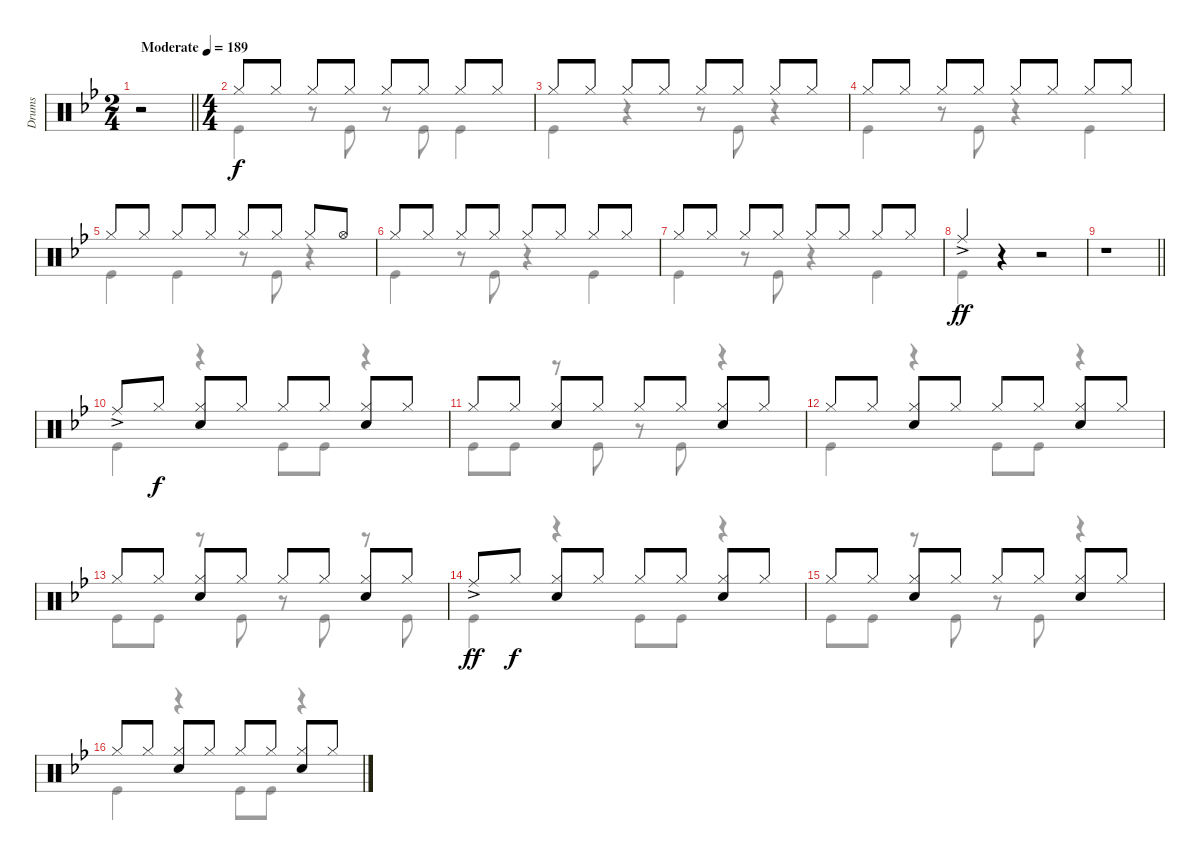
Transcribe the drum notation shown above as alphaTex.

\track ("Drums" "Drums") {instrument percussion}
\staff {score}
\articulation defaults
\voice
\ts (2 4)
\tempo (189 "Moderate")
\clef neutral
\barLineRight lightlight
\ks bb
r.2{dy f} |
\ts (4 4)
"Hi-Hat (closed)".8 "Hi-Hat (closed)".8 "Hi-Hat (closed)".8 "Hi-Hat (closed)".8 "Hi-Hat (closed)".8 "Hi-Hat (closed)".8 "Hi-Hat (closed)".8 "Hi-Hat (closed)".8 |
"Hi-Hat (closed)".8 "Hi-Hat (closed)".8 "Hi-Hat (closed)".8 "Hi-Hat (closed)".8 "Hi-Hat (closed)".8 "Hi-Hat (closed)".8 "Hi-Hat (closed)".8 "Hi-Hat (closed)".8 |
"Hi-Hat (closed)".8 "Hi-Hat (closed)".8 "Hi-Hat (closed)".8 "Hi-Hat (closed)".8 "Hi-Hat (closed)".8 "Hi-Hat (closed)".8 "Hi-Hat (closed)".8 "Hi-Hat (closed)".8 |
"Hi-Hat (closed)".8 "Hi-Hat (closed)".8 "Hi-Hat (closed)".8 "Hi-Hat (closed)".8 "Hi-Hat (closed)".8 "Hi-Hat (closed)".8 "Hi-Hat (closed)".8 "Hi-Hat (open)".8 |
"Hi-Hat (closed)".8 "Hi-Hat (closed)".8 "Hi-Hat (closed)".8 "Hi-Hat (closed)".8 "Hi-Hat (closed)".8 "Hi-Hat (closed)".8 "Hi-Hat (closed)".8 "Hi-Hat (closed)".8 |
"Hi-Hat (closed)".8 "Hi-Hat (closed)".8 "Hi-Hat (closed)".8 "Hi-Hat (closed)".8 "Hi-Hat (closed)".8 "Hi-Hat (closed)".8 "Hi-Hat (closed)".8 "Hi-Hat (closed)".8 |
"Ride (middle)"{ac}.4{dy ff} r.4 r.2 |
\barLineRight lightlight
r.1 |
"Ride (middle)"{ac}.8 "Hi-Hat (closed)".8{dy f} ("Hi-Hat (closed)" "Snare (hit) 2").8 "Hi-Hat (closed)".8 "Hi-Hat (closed)".8 "Hi-Hat (closed)".8 ("Hi-Hat (closed)" "Snare (hit) 2").8 "Hi-Hat (closed)".8 |
"Hi-Hat (closed)".8 "Hi-Hat (closed)".8 ("Hi-Hat (closed)" "Snare (hit) 2").8 "Hi-Hat (closed)".8 "Hi-Hat (closed)".8 "Hi-Hat (closed)".8 ("Hi-Hat (closed)" "Snare (hit) 2").8 "Hi-Hat (closed)".8 |
"Hi-Hat (closed)".8 "Hi-Hat (closed)".8 ("Hi-Hat (closed)" "Snare (hit) 2").8 "Hi-Hat (closed)".8 "Hi-Hat (closed)".8 "Hi-Hat (closed)".8 ("Hi-Hat (closed)" "Snare (hit) 2").8 "Hi-Hat (closed)".8 |
"Hi-Hat (closed)".8 "Hi-Hat (closed)".8 ("Hi-Hat (closed)" "Snare (hit) 2").8 "Hi-Hat (closed)".8 "Hi-Hat (closed)".8 "Hi-Hat (closed)".8 ("Hi-Hat (closed)" "Snare (hit) 2").8 "Hi-Hat (closed)".8 |
"Ride (middle)"{ac}.8{dy ff} "Hi-Hat (closed)".8{dy f} ("Hi-Hat (closed)" "Snare (hit) 2").8 "Hi-Hat (closed)".8 "Hi-Hat (closed)".8 "Hi-Hat (closed)".8 ("Hi-Hat (closed)" "Snare (hit) 2").8 "Hi-Hat (closed)".8 |
"Hi-Hat (closed)".8 "Hi-Hat (closed)".8 ("Hi-Hat (closed)" "Snare (hit) 2").8 "Hi-Hat (closed)".8 "Hi-Hat (closed)".8 "Hi-Hat (closed)".8 ("Hi-Hat (closed)" "Snare (hit) 2").8 "Hi-Hat (closed)".8 |
"Hi-Hat (closed)".8 "Hi-Hat (closed)".8 ("Hi-Hat (closed)" "Snare (hit) 2").8 "Hi-Hat (closed)".8 "Hi-Hat (closed)".8 "Hi-Hat (closed)".8 ("Hi-Hat (closed)" "Snare (hit) 2").8 "Hi-Hat (closed)".8
\voice
\clef neutral
\ottava regular
\simile none
\barLineRight lightlight
\ks bb
r.2{dy f} |
"Kick (hit)".4 r.8 "Kick (hit)".8 r.8 "Kick (hit)".8 "Kick (hit)".4 |
"Kick (hit)".4 r.4 r.8 "Kick (hit)".8 r.4 |
"Kick (hit)".4 r.8 "Kick (hit)".8 r.4 "Kick (hit)".4 |
"Kick (hit)".4 "Kick (hit)".4 r.8 "Kick (hit)".8 r.4 |
"Kick (hit)".4 r.8 "Kick (hit)".8 r.4 "Kick (hit)".4 |
"Kick (hit)".4 r.8 "Kick (hit)".8 r.4 "Kick (hit)".4 |
"Kick (hit)".4 r.4 r.2 |
\barLineRight lightlight
r.1 |
"Kick (hit)".4 r.4 "Kick (hit)".8 "Kick (hit)".8 r.4 |
"Kick (hit)".8 "Kick (hit)".8 r.8 "Kick (hit)".8 r.8 "Kick (hit)".8 r.4 |
"Kick (hit)".4 r.4 "Kick (hit)".8 "Kick (hit)".8 r.4 |
"Kick (hit)".8 "Kick (hit)".8 r.8 "Kick (hit)".8 r.8 "Kick (hit)".8 r.8 "Kick (hit)".8 |
"Kick (hit)".4 r.4 "Kick (hit)".8 "Kick (hit)".8 r.4 |
"Kick (hit)".8 "Kick (hit)".8 r.8 "Kick (hit)".8 r.8 "Kick (hit)".8 r.4 |
"Kick (hit)".4 r.4 "Kick (hit)".8 "Kick (hit)".8 r.4
